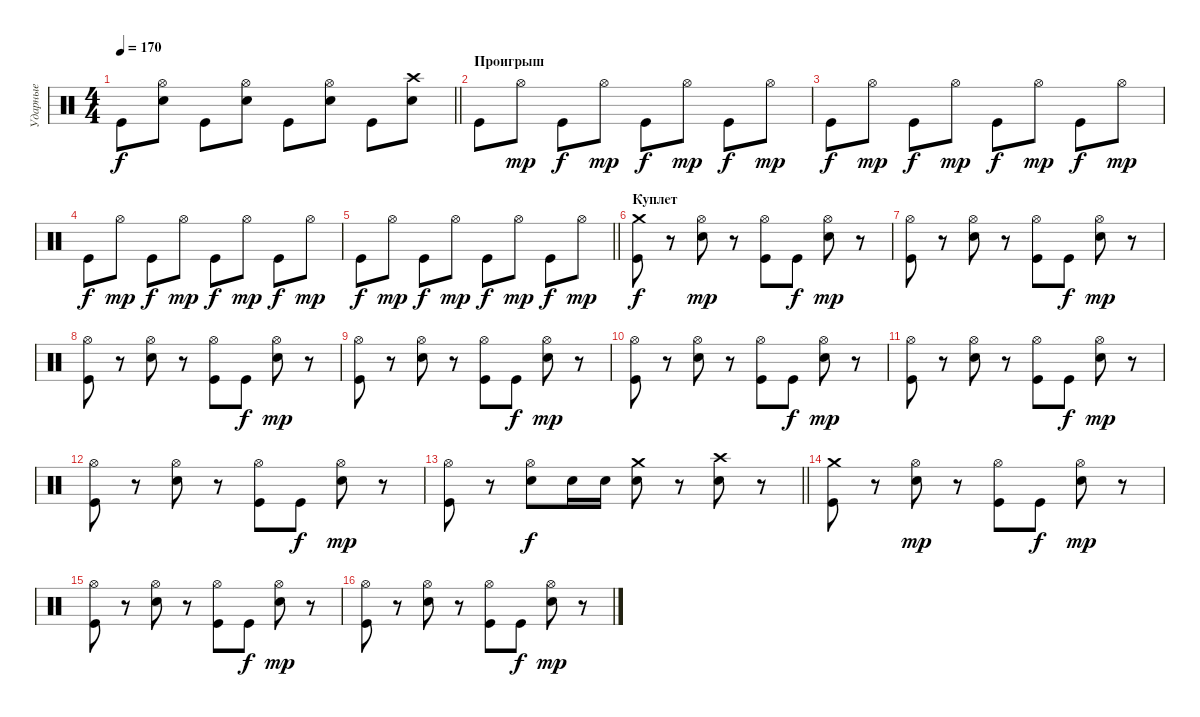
\track ("Ударные" "Ударные") {instrument percussion}
\staff {score}
\articulation defaults
\ts (4 4)
\tempo 170
\clef neutral
\barLineRight lightlight
\ks c "Kick (hit)".8{dy f}
("Hi-Hat (open)" "Electric Snare (hit)").8 "Kick (hit)".8 ("Hi-Hat (open)" "Electric Snare (hit)").8 "Kick (hit)".8 ("Hi-Hat (open)" "Electric Snare (hit)").8 "Kick (hit)".8 ("Crash high (hit)" "Electric Snare (hit)").8 |
\section ("" "Проигрыш")
"Kick (hit)".8 "Hi-Hat (open)".8{dy mp} "Kick (hit)".8{dy f} "Hi-Hat (open)".8{dy mp} "Kick (hit)".8{dy f} "Hi-Hat (open)".8{dy mp} "Kick (hit)".8{dy f} "Hi-Hat (open)".8{dy mp} |
"Kick (hit)".8{dy f} "Hi-Hat (open)".8{dy mp} "Kick (hit)".8{dy f} "Hi-Hat (open)".8{dy mp} "Kick (hit)".8{dy f} "Hi-Hat (open)".8{dy mp} "Kick (hit)".8{dy f} "Hi-Hat (open)".8{dy mp} |
"Kick (hit)".8{dy f} "Hi-Hat (open)".8{dy mp} "Kick (hit)".8{dy f} "Hi-Hat (open)".8{dy mp} "Kick (hit)".8{dy f} "Hi-Hat (open)".8{dy mp} "Kick (hit)".8{dy f} "Hi-Hat (open)".8{dy mp} |
\barLineRight lightlight "Kick (hit)".8{dy f} "Hi-Hat (open)".8{dy mp} "Kick (hit)".8{dy f} "Hi-Hat (open)".8{dy mp} "Kick (hit)".8{dy f} "Hi-Hat (open)".8{dy mp} "Kick (hit)".8{dy f} "Hi-Hat (open)".8{dy mp}
|
\section ("" "Куплет")
("Crash medium (hit)" "Kick (hit)").8{dy f} r.8 ("Hi-Hat (open)" "Electric Snare (hit)").8{dy mp} r.8 ("Hi-Hat (open)" "Kick (hit)").8 "Kick (hit)".8{dy f} ("Hi-Hat (open)" "Electric Snare (hit)").8{dy mp} r.8 |
("Hi-Hat (open)" "Kick (hit)").8 r.8 ("Hi-Hat (open)" "Electric Snare (hit)").8 r.8 ("Hi-Hat (open)" "Kick (hit)").8 "Kick (hit)".8{dy f} ("Hi-Hat (open)" "Electric Snare (hit)").8{dy mp} r.8 |
("Hi-Hat (open)" "Kick (hit)").8 r.8 ("Hi-Hat (open)" "Electric Snare (hit)").8 r.8 ("Hi-Hat (open)" "Kick (hit)").8 "Kick (hit)".8{dy f} ("Hi-Hat (open)" "Electric Snare (hit)").8{dy mp} r.8 |
("Hi-Hat (open)" "Kick (hit)").8 r.8 ("Hi-Hat (open)" "Electric Snare (hit)").8 r.8 ("Hi-Hat (open)" "Kick (hit)").8 "Kick (hit)".8{dy f} ("Hi-Hat (open)" "Electric Snare (hit)").8{dy mp} r.8 |
("Hi-Hat (open)" "Kick (hit)").8 r.8 ("Hi-Hat (open)" "Electric Snare (hit)").8 r.8 ("Hi-Hat (open)" "Kick (hit)").8 "Kick (hit)".8{dy f} ("Hi-Hat (open)" "Electric Snare (hit)").8{dy mp} r.8 |
("Hi-Hat (open)" "Kick (hit)").8 r.8 ("Hi-Hat (open)" "Electric Snare (hit)").8 r.8 ("Hi-Hat (open)" "Kick (hit)").8 "Kick (hit)".8{dy f} ("Hi-Hat (open)" "Electric Snare (hit)").8{dy mp} r.8 |
("Hi-Hat (open)" "Kick (hit)").8 r.8 ("Hi-Hat (open)" "Electric Snare (hit)").8 r.8 ("Hi-Hat (open)" "Kick (hit)").8 "Kick (hit)".8{dy f} ("Hi-Hat (open)" "Electric Snare (hit)").8{dy mp} r.8 |
\barLineRight lightlight
("Hi-Hat (open)" "Kick (hit)").8 r.8 ("Hi-Hat (open)" "Electric Snare (hit)").8{dy f} "Electric Snare (hit)".16 "Electric Snare (hit)".16 ("Crash medium (hit)" "Electric Snare (hit)").8 r.8 ("Crash high (hit)" "Electric Snare (hit)").8 r.8 |
("Crash medium (hit)" "Kick (hit)").8 r.8 ("Hi-Hat (open)" "Electric Snare (hit)").8{dy mp} r.8 ("Hi-Hat (open)" "Kick (hit)").8 "Kick (hit)".8{dy f} ("Hi-Hat (open)" "Electric Snare (hit)").8{dy mp} r.8 |
("Hi-Hat (open)" "Kick (hit)").8 r.8 ("Hi-Hat (open)" "Electric Snare (hit)").8 r.8 ("Hi-Hat (open)" "Kick (hit)").8 "Kick (hit)".8{dy f} ("Hi-Hat (open)" "Electric Snare (hit)").8{dy mp} r.8 |
("Hi-Hat (open)" "Kick (hit)").8 r.8 ("Hi-Hat (open)" "Electric Snare (hit)").8 r.8 ("Hi-Hat (open)" "Kick (hit)").8 "Kick (hit)".8{dy f} ("Hi-Hat (open)" "Electric Snare (hit)").8{dy mp} r.8
